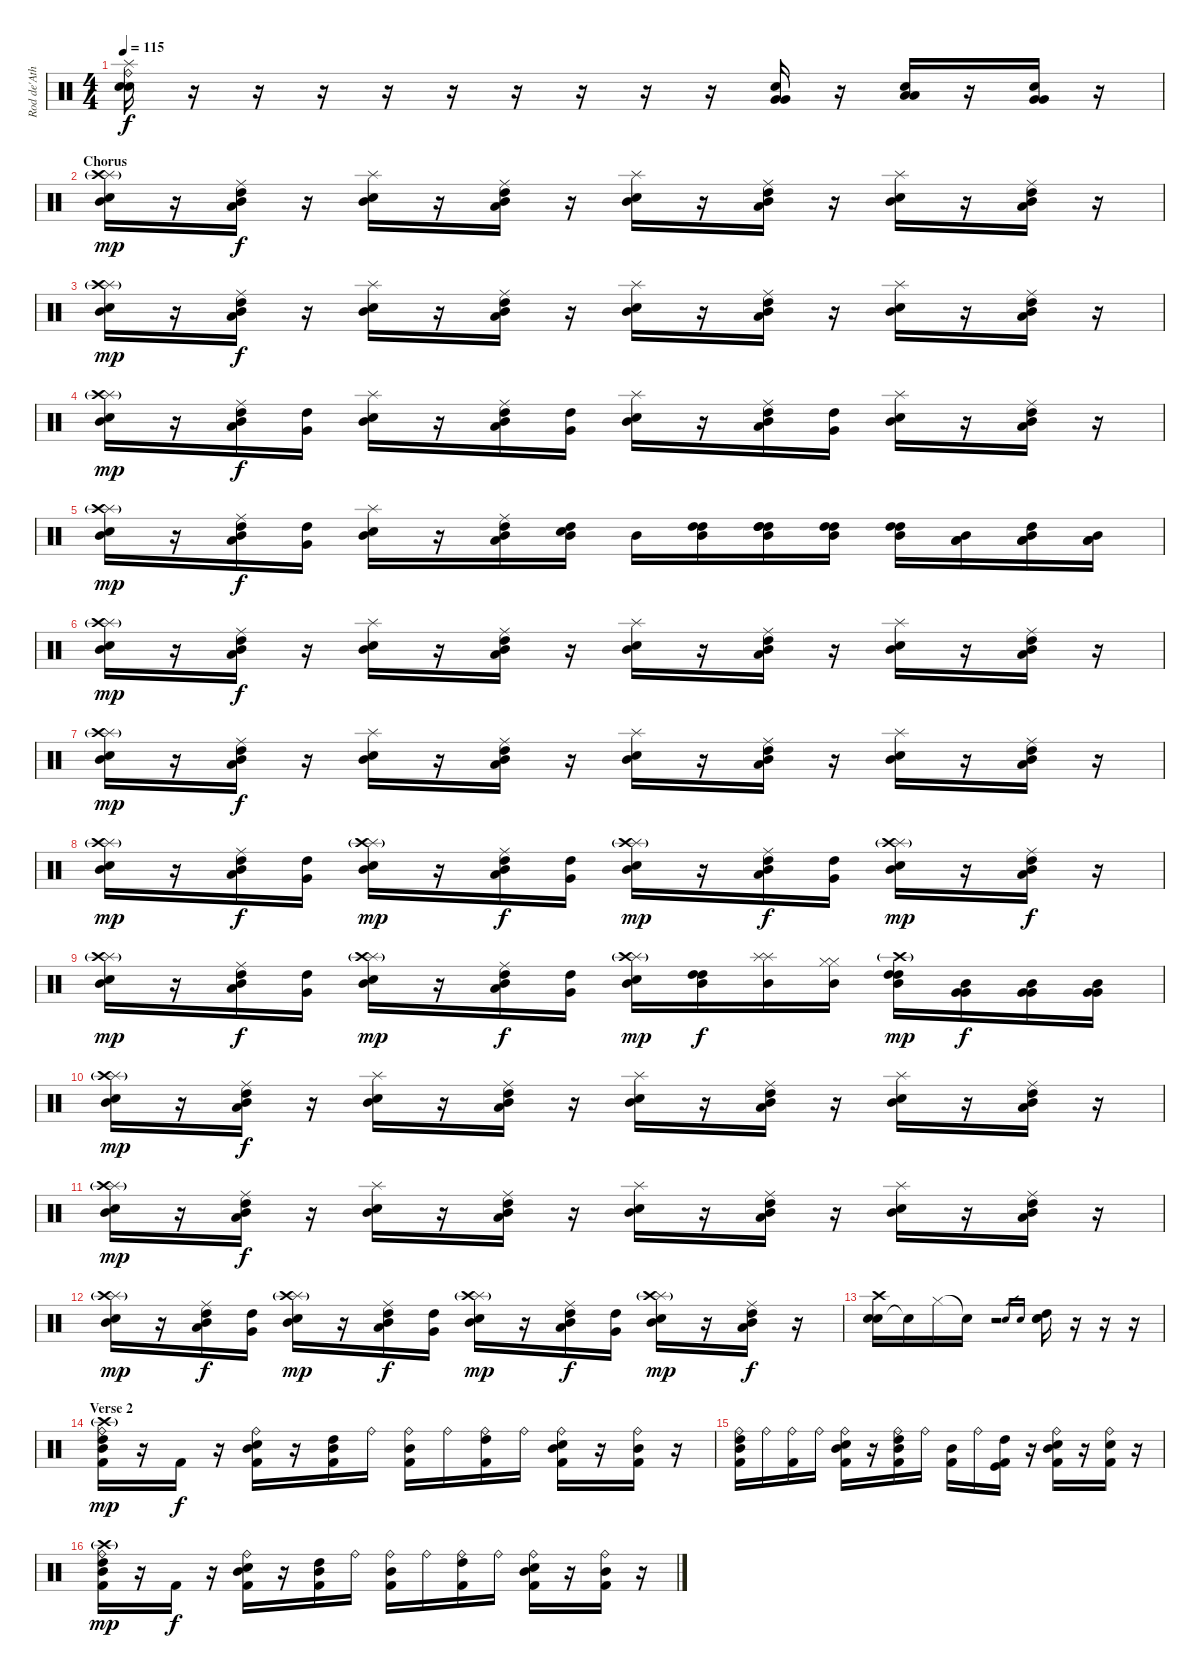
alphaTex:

\track ("Rod de'Ath" "Rod de'Ath") {instrument percussion}
\staff {score}
\articulation defaults
\ts (4 4)
\tempo 115
\clef neutral
\ks c
("Ride (bell)" "Electric Snare (hit)" "Snare (hit) 2" "Splash (hit)").16{dy f} r.16 r.16 r.16 r.16 r.16 r.16 r.16 r.16 r.16 ("Snare (hit) 2" "Very Low Tom (hit)" "Very Low Tom (hit)").16 r.16 ("Electric Snare (hit)" "Low Tom (hit)" "Low Tom (hit)").16 r.16 ("Snare (hit) 2" "Very Low Tom (hit)" "Very Low Tom (hit)").16 r.16 |
\section ("" "Chorus")
("Splash (hit)" "Snare (hit) 2" "Crash high (hit)"{g} "Mid Tom (hit)").16{dy mp} r.16 ("Ride (middle)" "Low Tom (hit)" "High Tom (hit)" "Mid Tom (hit)").16{dy f} r.16 ("Splash (hit)" "Snare (hit) 2" "Mid Tom (hit)").16 r.16 ("Ride (middle)" "Low Tom (hit)" "High Tom (hit)" "Mid Tom (hit)").16 r.16 ("Splash (hit)" "Snare (hit) 2" "Mid Tom (hit)").16 r.16 ("Ride (middle)" "Low Tom (hit)" "High Tom (hit)" "Mid Tom (hit)").16 r.16 ("Splash (hit)" "Snare (hit) 2" "Mid Tom (hit)").16 r.16 ("Ride (middle)" "Low Tom (hit)" "High Tom (hit)" "Mid Tom (hit)").16 r.16 |
("Splash (hit)" "Snare (hit) 2" "Crash high (hit)"{g} "Mid Tom (hit)").16{dy mp} r.16 ("Ride (middle)" "Low Tom (hit)" "High Tom (hit)" "Mid Tom (hit)").16{dy f} r.16 ("Splash (hit)" "Snare (hit) 2" "Mid Tom (hit)").16 r.16 ("Ride (middle)" "Low Tom (hit)" "High Tom (hit)" "Mid Tom (hit)").16 r.16 ("Splash (hit)" "Snare (hit) 2" "Mid Tom (hit)").16 r.16 ("Ride (middle)" "Low Tom (hit)" "High Tom (hit)" "Mid Tom (hit)").16 r.16 ("Splash (hit)" "Snare (hit) 2" "Mid Tom (hit)").16 r.16 ("Ride (middle)" "Low Tom (hit)" "High Tom (hit)" "Mid Tom (hit)").16 r.16 |
("Splash (hit)" "Snare (hit) 2" "Crash high (hit)"{g} "Mid Tom (hit)").16{dy mp} r.16 ("Ride (middle)" "Low Tom (hit)" "High Tom (hit)" "Mid Tom (hit)").16{dy f} ("Very Low Tom (hit)" "High Tom (hit)").16 ("Splash (hit)" "Snare (hit) 2" "Mid Tom (hit)").16 r.16 ("Ride (middle)" "Low Tom (hit)" "High Tom (hit)" "Mid Tom (hit)").16 ("Very Low Tom (hit)" "High Tom (hit)").16 ("Splash (hit)" "Snare (hit) 2" "Mid Tom (hit)").16 r.16 ("Ride (middle)" "Low Tom (hit)" "High Tom (hit)" "Mid Tom (hit)").16 ("Very Low Tom (hit)" "High Tom (hit)").16 ("Splash (hit)" "Snare (hit) 2" "Mid Tom (hit)").16 r.16 ("Ride (middle)" "Low Tom (hit)" "High Tom (hit)" "Mid Tom (hit)").16 r.16 |
("Splash (hit)" "Snare (hit) 2" "Crash high (hit)"{g} "Mid Tom (hit)").16{dy mp} r.16 ("Ride (middle)" "Low Tom (hit)" "High Tom (hit)" "Mid Tom (hit)").16{dy f} ("High Tom (hit)" "Very Low Tom (hit)").16 ("Splash (hit)" "Snare (hit) 2" "Mid Tom (hit)").16 r.16 ("Ride (middle)" "Low Tom (hit)" "High Tom (hit)" "Mid Tom (hit)").16 ("Electric Snare (hit)" "High Tom (hit)" "Mid Tom (hit)").16 "Mid Tom (hit)".16 ("High Tom (hit)" "High Tom (hit)" "Mid Tom (hit)").16 ("High Tom (hit)" "High Tom (hit)" "High Tom (hit)" "Mid Tom (hit)").16 ("High Tom (hit)" "High Tom (hit)" "Mid Tom (hit)").16 ("High Tom (hit)" "High Tom (hit)" "Mid Tom (hit)").16 ("Low Tom (hit)" "Low Tom (hit)" "Mid Tom (hit)").16 ("Low Tom (hit)" "Low Tom (hit)" "High Tom (hit)" "Mid Tom (hit)").16 ("Low Tom (hit)" "Low Tom (hit)" "Mid Tom (hit)").16 |
("Splash (hit)" "Snare (hit) 2" "Crash high (hit)"{g} "Mid Tom (hit)").16{dy mp} r.16 ("Ride (middle)" "Low Tom (hit)" "High Tom (hit)" "Mid Tom (hit)").16{dy f} r.16 ("Splash (hit)" "Snare (hit) 2" "Mid Tom (hit)").16 r.16 ("Ride (middle)" "Low Tom (hit)" "High Tom (hit)" "Mid Tom (hit)").16 r.16 ("Splash (hit)" "Snare (hit) 2" "Mid Tom (hit)").16 r.16 ("Ride (middle)" "Low Tom (hit)" "High Tom (hit)" "Mid Tom (hit)").16 r.16 ("Splash (hit)" "Snare (hit) 2" "Mid Tom (hit)").16 r.16 ("Ride (middle)" "Low Tom (hit)" "High Tom (hit)" "Mid Tom (hit)").16 r.16 |
("Splash (hit)" "Snare (hit) 2" "Crash high (hit)"{g} "Mid Tom (hit)").16{dy mp} r.16 ("Ride (middle)" "Low Tom (hit)" "High Tom (hit)" "Mid Tom (hit)").16{dy f} r.16 ("Splash (hit)" "Snare (hit) 2" "Mid Tom (hit)").16 r.16 ("Ride (middle)" "Low Tom (hit)" "High Tom (hit)" "Mid Tom (hit)").16 r.16 ("Splash (hit)" "Snare (hit) 2" "Mid Tom (hit)").16 r.16 ("Ride (middle)" "Low Tom (hit)" "High Tom (hit)" "Mid Tom (hit)").16 r.16 ("Splash (hit)" "Snare (hit) 2" "Mid Tom (hit)").16 r.16 ("Ride (middle)" "Low Tom (hit)" "High Tom (hit)" "Mid Tom (hit)").16 r.16 |
("Splash (hit)" "Snare (hit) 2" "Crash high (hit)"{g} "Mid Tom (hit)").16{dy mp} r.16 ("Ride (middle)" "Low Tom (hit)" "High Tom (hit)" "Mid Tom (hit)").16{dy f} ("Very Low Tom (hit)" "High Tom (hit)").16 ("Splash (hit)" "Snare (hit) 2" "Crash high (hit)"{g} "Mid Tom (hit)").16{dy mp} r.16 ("Ride (middle)" "Low Tom (hit)" "High Tom (hit)" "Mid Tom (hit)").16{dy f} ("Very Low Tom (hit)" "High Tom (hit)").16 ("Splash (hit)" "Snare (hit) 2" "Crash high (hit)"{g} "Mid Tom (hit)").16{dy mp} r.16 ("Ride (middle)" "Low Tom (hit)" "High Tom (hit)" "Mid Tom (hit)").16{dy f} ("Very Low Tom (hit)" "High Tom (hit)").16 ("Splash (hit)" "Snare (hit) 2" "Crash high (hit)"{g} "Mid Tom (hit)").16{dy mp} r.16 ("Ride (middle)" "Low Tom (hit)" "High Tom (hit)" "Mid Tom (hit)").16{dy f} r.16 |
("Splash (hit)" "Snare (hit) 2" "Crash high (hit)"{g} "Mid Tom (hit)").16{dy mp} r.16 ("Ride (middle)" "Low Tom (hit)" "High Tom (hit)" "Mid Tom (hit)").16{dy f} ("Very Low Tom (hit)" "High Tom (hit)").16 ("Splash (hit)" "Snare (hit) 2" "Crash high (hit)"{g} "Mid Tom (hit)").16{dy mp} r.16 ("Ride (middle)" "Low Tom (hit)" "High Tom (hit)" "Mid Tom (hit)").16{dy f} ("Very Low Tom (hit)" "High Tom (hit)").16 ("Splash (hit)" "Snare (hit) 2" "Crash high (hit)"{g} "Mid Tom (hit)").16{dy mp} ("High Tom (hit)" "High Tom (hit)" "Mid Tom (hit)").16{dy f} ("Splash (hit)" "Splash (hit)" "Mid Tom (hit)").16 ("Hi-Hat (closed)" "Hi-Hat (closed)" "Mid Tom (hit)").16 ("High Tom (hit)" "High Tom (hit)" "Crash high (hit)"{g} "Mid Tom (hit)").16{dy mp} ("Very Low Tom (hit)" "Very Low Tom (hit)" "Mid Tom (hit)").16{dy f} ("Very Low Tom (hit)" "Very Low Tom (hit)" "Mid Tom (hit)").16 ("Very Low Tom (hit)" "Very Low Tom (hit)" "Mid Tom (hit)").16 |
("Splash (hit)" "Snare (hit) 2" "Crash high (hit)"{g} "Mid Tom (hit)").16{dy mp} r.16 ("Ride (middle)" "Low Tom (hit)" "High Tom (hit)" "Mid Tom (hit)").16{dy f} r.16 ("Splash (hit)" "Snare (hit) 2" "Mid Tom (hit)").16 r.16 ("Ride (middle)" "Low Tom (hit)" "High Tom (hit)" "Mid Tom (hit)").16 r.16 ("Splash (hit)" "Snare (hit) 2" "Mid Tom (hit)").16 r.16 ("Ride (middle)" "Low Tom (hit)" "High Tom (hit)" "Mid Tom (hit)").16 r.16 ("Splash (hit)" "Snare (hit) 2" "Mid Tom (hit)").16 r.16 ("Ride (middle)" "Low Tom (hit)" "High Tom (hit)" "Mid Tom (hit)").16 r.16 |
("Splash (hit)" "Snare (hit) 2" "Crash high (hit)"{g} "Mid Tom (hit)").16{dy mp} r.16 ("Ride (middle)" "Low Tom (hit)" "High Tom (hit)" "Mid Tom (hit)").16{dy f} r.16 ("Splash (hit)" "Snare (hit) 2" "Mid Tom (hit)").16 r.16 ("Ride (middle)" "Low Tom (hit)" "High Tom (hit)" "Mid Tom (hit)").16 r.16 ("Splash (hit)" "Snare (hit) 2" "Mid Tom (hit)").16 r.16 ("Ride (middle)" "Low Tom (hit)" "High Tom (hit)" "Mid Tom (hit)").16 r.16 ("Splash (hit)" "Snare (hit) 2" "Mid Tom (hit)").16 r.16 ("Ride (middle)" "Low Tom (hit)" "High Tom (hit)" "Mid Tom (hit)").16 r.16 |
("Splash (hit)" "Snare (hit) 2" "Crash high (hit)"{g} "Mid Tom (hit)").16{dy mp} r.16 ("Ride (middle)" "Low Tom (hit)" "High Tom (hit)" "Mid Tom (hit)").16{dy f} ("Very Low Tom (hit)" "High Tom (hit)").16 ("Splash (hit)" "Snare (hit) 2" "Crash high (hit)"{g} "Mid Tom (hit)").16{dy mp} r.16 ("Ride (middle)" "Low Tom (hit)" "High Tom (hit)" "Mid Tom (hit)").16{dy f} ("Very Low Tom (hit)" "High Tom (hit)").16 ("Splash (hit)" "Snare (hit) 2" "Crash high (hit)"{g} "Mid Tom (hit)").16{dy mp} r.16 ("Ride (middle)" "Low Tom (hit)" "High Tom (hit)" "Mid Tom (hit)").16{dy f} ("Very Low Tom (hit)" "High Tom (hit)").16 ("Splash (hit)" "Snare (hit) 2" "Crash high (hit)"{g} "Mid Tom (hit)").16{dy mp} r.16 ("Ride (middle)" "Low Tom (hit)" "High Tom (hit)" "Mid Tom (hit)").16{dy f} r.16 |
("Electric Snare (hit)" "Snare (hit) 2" "Crash high (hit)").16 "Snare (hit)"{t}.16 "Hi-Hat (closed)".16 "Snare (hit)"{t}.16 r.2 "Snare (hit) 2"{sl}.16{gr} "Electric Snare (hit)"{sl}.16{gr} ("Electric Snare (hit)" "Snare (hit) 2" "High Tom (hit)").16 r.16 r.16 r.16 |
\section ("" "Verse 2")
("Ride (bell)" "High Tom (hit)" "Mid Tom (hit)" "Kick (hit) 2" "Crash high (hit)"{g}).16{dy mp} r.16 "Kick (hit) 2".16{dy f} r.16 ("Ride (bell)" "Snare (hit) 2" "Mid Tom (hit)" "Kick (hit) 2").16 r.16 ("High Tom (hit)" "Mid Tom (hit)" "Kick (hit) 2").16 "Ride (bell)".16 ("Ride (bell)" "Mid Tom (hit)" "Kick (hit) 2").16 "Ride (bell)".16 ("Ride (bell)" "High Tom (hit)" "Kick (hit) 2").16 "Ride (bell)".16 ("Ride (bell)" "Snare (hit) 2" "Mid Tom (hit)" "Kick (hit) 2").16 r.16 ("Ride (bell)" "Mid Tom (hit)" "Kick (hit) 2").16 r.16 |
("Ride (bell)" "High Tom (hit)" "Mid Tom (hit)" "Kick (hit) 2").16 "Ride (bell)".16 ("Ride (bell)" "Kick (hit) 2").16 "Ride (bell)".16 ("Ride (bell)" "Snare (hit) 2" "Mid Tom (hit)" "Kick (hit) 2").16 r.16 ("Ride (bell)" "High Tom (hit)" "Mid Tom (hit)" "Kick (hit) 2").16 "Ride (bell)".16 ("Mid Tom (hit)" "Kick (hit) 2").16 "Ride (bell)".16 ("Kick (hit)" "High Tom (hit)" "Kick (hit) 2").16 r.16 ("Ride (bell)" "Snare (hit) 2" "Mid Tom (hit)" "Kick (hit) 2").16 r.16 ("Ride (bell)" "Electric Snare (hit)" "Kick (hit) 2").16 r.16 |
("Ride (bell)" "High Tom (hit)" "Mid Tom (hit)" "Kick (hit) 2" "Crash high (hit)"{g}).16{dy mp} r.16 "Kick (hit) 2".16{dy f} r.16 ("Ride (bell)" "Snare (hit) 2" "Mid Tom (hit)" "Kick (hit) 2").16 r.16 ("High Tom (hit)" "Mid Tom (hit)" "Kick (hit) 2").16 "Ride (bell)".16 ("Ride (bell)" "Mid Tom (hit)" "Kick (hit) 2").16 "Ride (bell)".16 ("Ride (bell)" "High Tom (hit)" "Kick (hit) 2").16 "Ride (bell)".16 ("Ride (bell)" "Snare (hit) 2" "Mid Tom (hit)" "Kick (hit) 2").16 r.16 ("Ride (bell)" "Mid Tom (hit)" "Kick (hit) 2").16 r.16
